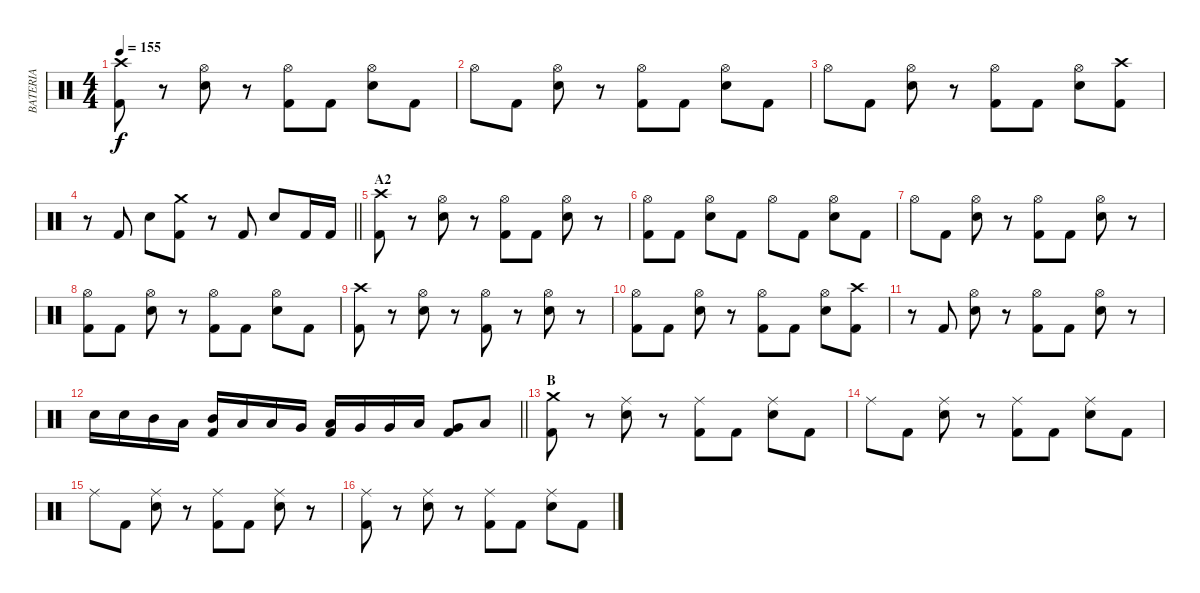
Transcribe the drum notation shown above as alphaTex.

\track ("BATERIA" "BATERIA") {instrument percussion}
\staff {score}
\articulation defaults
\ts (4 4)
\tempo 155
\clef neutral
\ks c
("Kick (hit) 2" "Crash high (hit)").8{dy f} r.8 ("Hi-Hat (open)" "Electric Snare (hit)").8 r.8 ("Kick (hit) 2" "Hi-Hat (open)").8 "Kick (hit) 2".8 ("Hi-Hat (open)" "Electric Snare (hit)").8 "Kick (hit) 2".8 |
"Hi-Hat (open)".8 "Kick (hit) 2".8 ("Hi-Hat (open)" "Electric Snare (hit)").8 r.8 ("Kick (hit) 2" "Hi-Hat (open)").8 "Kick (hit) 2".8 ("Hi-Hat (open)" "Electric Snare (hit)").8 "Kick (hit) 2".8 |
"Hi-Hat (open)".8 "Kick (hit) 2".8 ("Hi-Hat (open)" "Electric Snare (hit)").8 r.8 ("Kick (hit) 2" "Hi-Hat (open)").8 "Kick (hit) 2".8 ("Hi-Hat (open)" "Electric Snare (hit)").8 ("Kick (hit) 2" "Crash high (hit)").8 |
\barLineRight lightlight
r.8 "Kick (hit) 2".8 "Electric Snare (hit)".8 ("Kick (hit) 2" "Crash medium (hit)").8 r.8 "Kick (hit) 2".8 "Electric Snare (hit)".8 "Kick (hit) 2".16 "Kick (hit) 2".16 |
\section ("" "A2")
("Kick (hit) 2" "Crash high (hit)").8 r.8 ("Hi-Hat (open)" "Electric Snare (hit)").8 r.8 ("Kick (hit) 2" "Hi-Hat (open)").8 "Kick (hit) 2".8 ("Hi-Hat (open)" "Electric Snare (hit)").8 r.8 |
("Kick (hit) 2" "Hi-Hat (open)").8 "Kick (hit) 2".8 ("Hi-Hat (open)" "Electric Snare (hit)").8 "Kick (hit) 2".8 "Hi-Hat (open)".8 "Kick (hit) 2".8 ("Hi-Hat (open)" "Electric Snare (hit)").8 "Kick (hit) 2".8 |
"Hi-Hat (open)".8 "Kick (hit) 2".8 ("Hi-Hat (open)" "Electric Snare (hit)").8 r.8 ("Kick (hit) 2" "Hi-Hat (open)").8 "Kick (hit) 2".8 ("Hi-Hat (open)" "Electric Snare (hit)").8 r.8 |
("Kick (hit) 2" "Hi-Hat (open)").8 "Kick (hit) 2".8 ("Hi-Hat (open)" "Electric Snare (hit)").8 r.8 ("Kick (hit) 2" "Hi-Hat (open)").8 "Kick (hit) 2".8 ("Hi-Hat (open)" "Electric Snare (hit)").8 "Kick (hit) 2".8 |
("Kick (hit) 2" "Crash high (hit)").8 r.8 ("Hi-Hat (open)" "Electric Snare (hit)").8 r.8 ("Kick (hit) 2" "Hi-Hat (open)").8 r.8 ("Hi-Hat (open)" "Electric Snare (hit)").8 r.8 |
("Kick (hit) 2" "Hi-Hat (open)").8 "Kick (hit) 2".8 ("Hi-Hat (open)" "Electric Snare (hit)").8 r.8 ("Kick (hit) 2" "Hi-Hat (open)").8 "Kick (hit) 2".8 ("Hi-Hat (open)" "Electric Snare (hit)").8 ("Kick (hit) 2" "Crash high (hit)").8 |
r.8 "Kick (hit) 2".8 ("Hi-Hat (open)" "Electric Snare (hit)").8 r.8 ("Kick (hit) 2" "Hi-Hat (open)").8 "Kick (hit) 2".8 ("Hi-Hat (open)" "Electric Snare (hit)").8 r.8 |
\barLineRight lightlight "Electric Snare (hit)".16 "Electric Snare (hit)".16 "Mid Tom (hit)".16 "Low Tom (hit)".16
("Kick (hit) 2" "Mid Tom (hit)").16 "Low Tom (hit)".16 "Low Tom (hit)".16 "Very Low Tom (hit)".16 ("Kick (hit) 2" "Low Tom (hit)").16 "Very Low Tom (hit)".16 "Very Low Tom (hit)".16 "Low Floor Tom (hit)".16 ("Kick (hit) 2" "Very Low Tom (hit)").8 "Low Floor Tom (hit)".8 |
\section ("" "B")
("Kick (hit) 2" "Crash medium (hit)").8 r.8 ("Ride (middle)" "Electric Snare (hit)").8 r.8 ("Kick (hit) 2" "Ride (middle)").8 "Kick (hit) 2".8 ("Ride (middle)" "Electric Snare (hit)").8 "Kick (hit) 2".8 |
"Ride (middle)".8 "Kick (hit) 2".8 ("Ride (middle)" "Electric Snare (hit)").8 r.8 ("Kick (hit) 2" "Ride (middle)").8 "Kick (hit) 2".8 ("Ride (middle)" "Electric Snare (hit)").8 "Kick (hit) 2".8 |
"Ride (middle)".8 "Kick (hit) 2".8 ("Ride (middle)" "Electric Snare (hit)").8 r.8 ("Kick (hit) 2" "Ride (middle)").8 "Kick (hit) 2".8 ("Ride (middle)" "Electric Snare (hit)").8 r.8 |
("Kick (hit) 2" "Ride (middle)").8 r.8 ("Ride (middle)" "Electric Snare (hit)").8 r.8 ("Kick (hit) 2" "Ride (middle)").8 "Kick (hit) 2".8 ("Ride (middle)" "Electric Snare (hit)").8 "Kick (hit) 2".8
